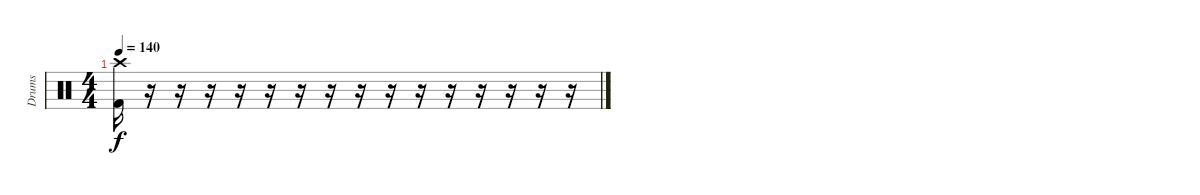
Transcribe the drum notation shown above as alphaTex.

\track ("Drums" "Drums") {instrument percussion}
\staff {score}
\articulation defaults
\ts (4 4)
\tempo 140
\clef neutral
\ks c
("Crash high (hit)" "Kick (hit) 2").16{dy f} r.16 r.16 r.16 r.16 r.16 r.16 r.16 r.16 r.16 r.16 r.16 r.16 r.16 r.16 r.16
